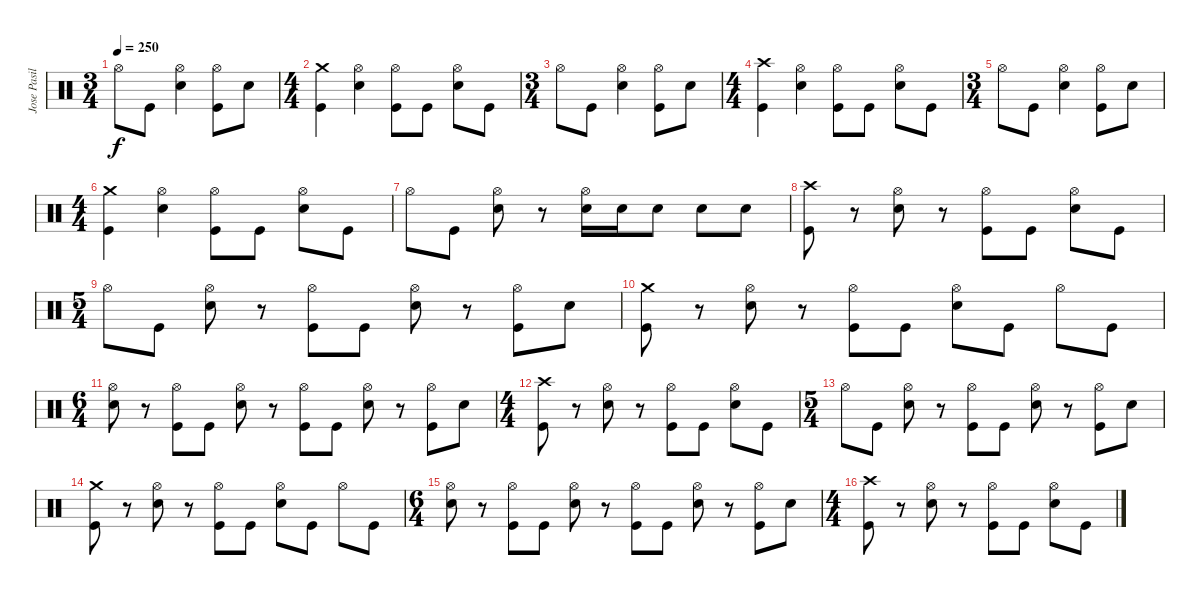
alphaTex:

\track ("Jose Pasillas II" "Jose Pasil") {instrument percussion}
\staff {score}
\articulation defaults
\ts (3 4)
\tempo 250
\clef neutral
\ks c "Hi-Hat (open)".8{dy f} "Kick (hit)".8
("Hi-Hat (open)" "Electric Snare (hit)").4 ("Hi-Hat (open)" "Kick (hit)").8 "Electric Snare (hit)".8 |
\ts (4 4)
("Crash medium (hit)" "Kick (hit)").4 ("Hi-Hat (open)" "Electric Snare (hit)").4 ("Hi-Hat (open)" "Kick (hit)").8 "Kick (hit)".8 ("Hi-Hat (open)" "Electric Snare (hit)").8 "Kick (hit)".8 |
\ts (3 4)
"Hi-Hat (open)".8 "Kick (hit)".8 ("Hi-Hat (open)" "Electric Snare (hit)").4 ("Hi-Hat (open)" "Kick (hit)").8 "Electric Snare (hit)".8 |
\ts (4 4)
("Crash high (hit)" "Kick (hit)").4 ("Hi-Hat (open)" "Electric Snare (hit)").4 ("Hi-Hat (open)" "Kick (hit)").8 "Kick (hit)".8 ("Hi-Hat (open)" "Electric Snare (hit)").8 "Kick (hit)".8 |
\ts (3 4)
"Hi-Hat (open)".8 "Kick (hit)".8 ("Hi-Hat (open)" "Electric Snare (hit)").4 ("Hi-Hat (open)" "Kick (hit)").8 "Electric Snare (hit)".8 |
\ts (4 4)
("Crash medium (hit)" "Kick (hit)").4 ("Hi-Hat (open)" "Electric Snare (hit)").4 ("Hi-Hat (open)" "Kick (hit)").8 "Kick (hit)".8 ("Hi-Hat (open)" "Electric Snare (hit)").8 "Kick (hit)".8 |
"Hi-Hat (open)".8 "Kick (hit)".8 ("Hi-Hat (open)" "Electric Snare (hit)").8 r.8 ("Hi-Hat (open)" "Electric Snare (hit)").16 "Electric Snare (hit)".16 "Electric Snare (hit)".8 "Electric Snare (hit)".8 "Electric Snare (hit)".8 |
("Crash high (hit)" "Kick (hit)").8 r.8 ("Hi-Hat (open)" "Electric Snare (hit)").8 r.8 ("Hi-Hat (open)" "Kick (hit)").8 "Kick (hit)".8 ("Hi-Hat (open)" "Electric Snare (hit)").8 "Kick (hit)".8 |
\ts (5 4)
"Hi-Hat (open)".8 "Kick (hit)".8 ("Hi-Hat (open)" "Electric Snare (hit)").8 r.8 ("Hi-Hat (open)" "Kick (hit)").8 "Kick (hit)".8 ("Hi-Hat (open)" "Electric Snare (hit)").8 r.8 ("Hi-Hat (open)" "Kick (hit)").8 "Electric Snare (hit)".8 |
("Crash medium (hit)" "Kick (hit)").8 r.8 ("Hi-Hat (open)" "Electric Snare (hit)").8 r.8 ("Hi-Hat (open)" "Kick (hit)").8 "Kick (hit)".8 ("Hi-Hat (open)" "Electric Snare (hit)").8 "Kick (hit)".8 "Hi-Hat (open)".8 "Kick (hit)".8 |
\ts (6 4)
("Hi-Hat (open)" "Electric Snare (hit)").8 r.8 ("Hi-Hat (open)" "Kick (hit)").8 "Kick (hit)".8 ("Hi-Hat (open)" "Electric Snare (hit)").8 r.8 ("Hi-Hat (open)" "Kick (hit)").8 "Kick (hit)".8 ("Hi-Hat (open)" "Electric Snare (hit)").8 r.8 ("Hi-Hat (open)" "Kick (hit)").8 "Electric Snare (hit)".8 |
\ts (4 4)
("Crash high (hit)" "Kick (hit)").8 r.8 ("Hi-Hat (open)" "Electric Snare (hit)").8 r.8 ("Hi-Hat (open)" "Kick (hit)").8 "Kick (hit)".8 ("Hi-Hat (open)" "Electric Snare (hit)").8 "Kick (hit)".8 |
\ts (5 4)
"Hi-Hat (open)".8 "Kick (hit)".8 ("Hi-Hat (open)" "Electric Snare (hit)").8 r.8 ("Hi-Hat (open)" "Kick (hit)").8 "Kick (hit)".8 ("Hi-Hat (open)" "Electric Snare (hit)").8 r.8 ("Hi-Hat (open)" "Kick (hit)").8 "Electric Snare (hit)".8 |
("Crash medium (hit)" "Kick (hit)").8 r.8 ("Hi-Hat (open)" "Electric Snare (hit)").8 r.8 ("Hi-Hat (open)" "Kick (hit)").8 "Kick (hit)".8 ("Hi-Hat (open)" "Electric Snare (hit)").8 "Kick (hit)".8 "Hi-Hat (open)".8 "Kick (hit)".8 |
\ts (6 4)
("Hi-Hat (open)" "Electric Snare (hit)").8 r.8 ("Hi-Hat (open)" "Kick (hit)").8 "Kick (hit)".8 ("Hi-Hat (open)" "Electric Snare (hit)").8 r.8 ("Hi-Hat (open)" "Kick (hit)").8 "Kick (hit)".8 ("Hi-Hat (open)" "Electric Snare (hit)").8 r.8 ("Hi-Hat (open)" "Kick (hit)").8 "Electric Snare (hit)".8 |
\ts (4 4)
("Crash high (hit)" "Kick (hit)").8 r.8 ("Hi-Hat (open)" "Electric Snare (hit)").8 r.8 ("Hi-Hat (open)" "Kick (hit)").8 "Kick (hit)".8 ("Hi-Hat (open)" "Electric Snare (hit)").8 "Kick (hit)".8
